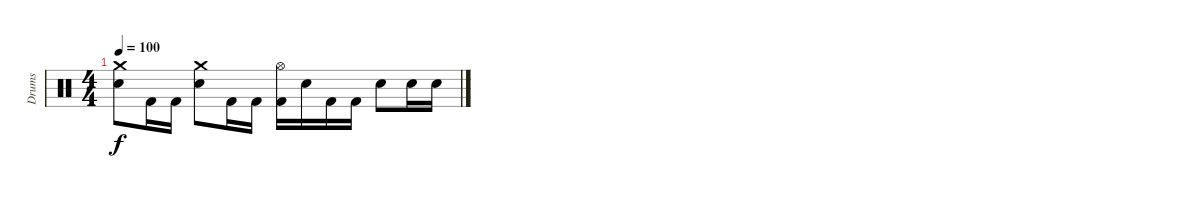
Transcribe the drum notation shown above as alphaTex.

\track ("Drums" "Drums") {instrument percussion}
\staff {score}
\articulation defaults
\ts (4 4)
\tempo 100
\clef neutral
\ks c
("Crash medium (hit)" "Electric Snare (hit)").8{dy f volume 3} "Kick (hit) 2".16 "Kick (hit) 2".16 ("Crash medium (hit)" "Electric Snare (hit)").8 "Kick (hit) 2".16 "Kick (hit) 2".16 ("Hi-Hat (open)" "Kick (hit) 2").16{volume 2} "Electric Snare (hit)".16 "Kick (hit) 2".16 "Kick (hit) 2".16 "Electric Snare (hit)".8 "Electric Snare (hit)".16 "Electric Snare (hit)".16
